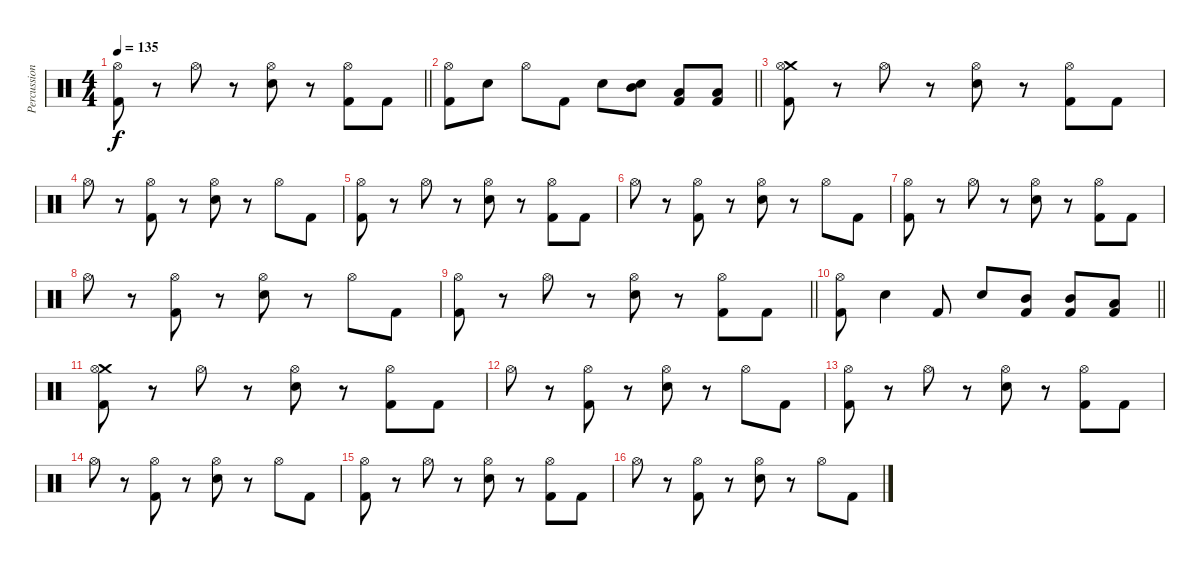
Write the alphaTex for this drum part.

\track ("Percussion" "Percussion") {instrument percussion}
\staff {score}
\articulation defaults
\ts (4 4)
\tempo 135
\clef neutral
\barLineRight lightlight
\ks c
("Hi-Hat (open)" "Kick (hit) 2").8{dy f} r.8 "Hi-Hat (open)".8 r.8 ("Hi-Hat (open)" "Electric Snare (hit)").8 r.8 ("Hi-Hat (open)" "Kick (hit) 2").8 "Kick (hit) 2".8 |
\barLineRight lightlight
("Hi-Hat (open)" "Kick (hit) 2").8 "Electric Snare (hit)".8 "Hi-Hat (open)".8 "Kick (hit) 2".8 "Electric Snare (hit)".8 ("Mid Tom (hit)" "Electric Snare (hit)").8 ("Low Tom (hit)" "Kick (hit) 2").8 ("Low Tom (hit)" "Kick (hit) 2").8 |
("Crash medium (hit)" "Hi-Hat (open)" "Kick (hit) 2").8 r.8 "Hi-Hat (open)".8 r.8 ("Hi-Hat (open)" "Electric Snare (hit)").8 r.8 ("Hi-Hat (open)" "Kick (hit) 2").8 "Kick (hit) 2".8 |
"Hi-Hat (open)".8 r.8 ("Hi-Hat (open)" "Kick (hit) 2").8 r.8 ("Hi-Hat (open)" "Electric Snare (hit)").8 r.8 "Hi-Hat (open)".8 "Kick (hit) 2".8 |
("Hi-Hat (open)" "Kick (hit) 2").8 r.8 "Hi-Hat (open)".8 r.8 ("Hi-Hat (open)" "Electric Snare (hit)").8 r.8 ("Hi-Hat (open)" "Kick (hit) 2").8 "Kick (hit) 2".8 |
"Hi-Hat (open)".8 r.8 ("Hi-Hat (open)" "Kick (hit) 2").8 r.8 ("Hi-Hat (open)" "Electric Snare (hit)").8 r.8 "Hi-Hat (open)".8 "Kick (hit) 2".8 |
("Hi-Hat (open)" "Kick (hit) 2").8 r.8 "Hi-Hat (open)".8 r.8 ("Hi-Hat (open)" "Electric Snare (hit)").8 r.8 ("Hi-Hat (open)" "Kick (hit) 2").8 "Kick (hit) 2".8 |
"Hi-Hat (open)".8 r.8 ("Hi-Hat (open)" "Kick (hit) 2").8 r.8 ("Hi-Hat (open)" "Electric Snare (hit)").8 r.8 "Hi-Hat (open)".8 "Kick (hit) 2".8 |
\barLineRight lightlight
("Hi-Hat (open)" "Kick (hit) 2").8 r.8 "Hi-Hat (open)".8 r.8 ("Hi-Hat (open)" "Electric Snare (hit)").8 r.8 ("Hi-Hat (open)" "Kick (hit) 2").8 "Kick (hit) 2".8 |
\barLineRight lightlight
("Hi-Hat (open)" "Kick (hit) 2").8 "Electric Snare (hit)".4 "Kick (hit) 2".8 "Electric Snare (hit)".8 ("Mid Tom (hit)" "Kick (hit) 2").8 ("Mid Tom (hit)" "Kick (hit) 2").8 ("Low Tom (hit)" "Kick (hit) 2").8 |
("Crash medium (hit)" "Hi-Hat (open)" "Kick (hit) 2").8 r.8 "Hi-Hat (open)".8 r.8 ("Hi-Hat (open)" "Electric Snare (hit)").8 r.8 ("Hi-Hat (open)" "Kick (hit) 2").8 "Kick (hit) 2".8 |
"Hi-Hat (open)".8 r.8 ("Hi-Hat (open)" "Kick (hit) 2").8 r.8 ("Hi-Hat (open)" "Electric Snare (hit)").8 r.8 "Hi-Hat (open)".8 "Kick (hit) 2".8 |
("Hi-Hat (open)" "Kick (hit) 2").8 r.8 "Hi-Hat (open)".8 r.8 ("Hi-Hat (open)" "Electric Snare (hit)").8 r.8 ("Hi-Hat (open)" "Kick (hit) 2").8 "Kick (hit) 2".8 |
"Hi-Hat (open)".8 r.8 ("Hi-Hat (open)" "Kick (hit) 2").8 r.8 ("Hi-Hat (open)" "Electric Snare (hit)").8 r.8 "Hi-Hat (open)".8 "Kick (hit) 2".8 |
("Hi-Hat (open)" "Kick (hit) 2").8 r.8 "Hi-Hat (open)".8 r.8 ("Hi-Hat (open)" "Electric Snare (hit)").8 r.8 ("Hi-Hat (open)" "Kick (hit) 2").8 "Kick (hit) 2".8 |
"Hi-Hat (open)".8 r.8 ("Hi-Hat (open)" "Kick (hit) 2").8 r.8 ("Hi-Hat (open)" "Electric Snare (hit)").8 r.8 "Hi-Hat (open)".8 "Kick (hit) 2".8
